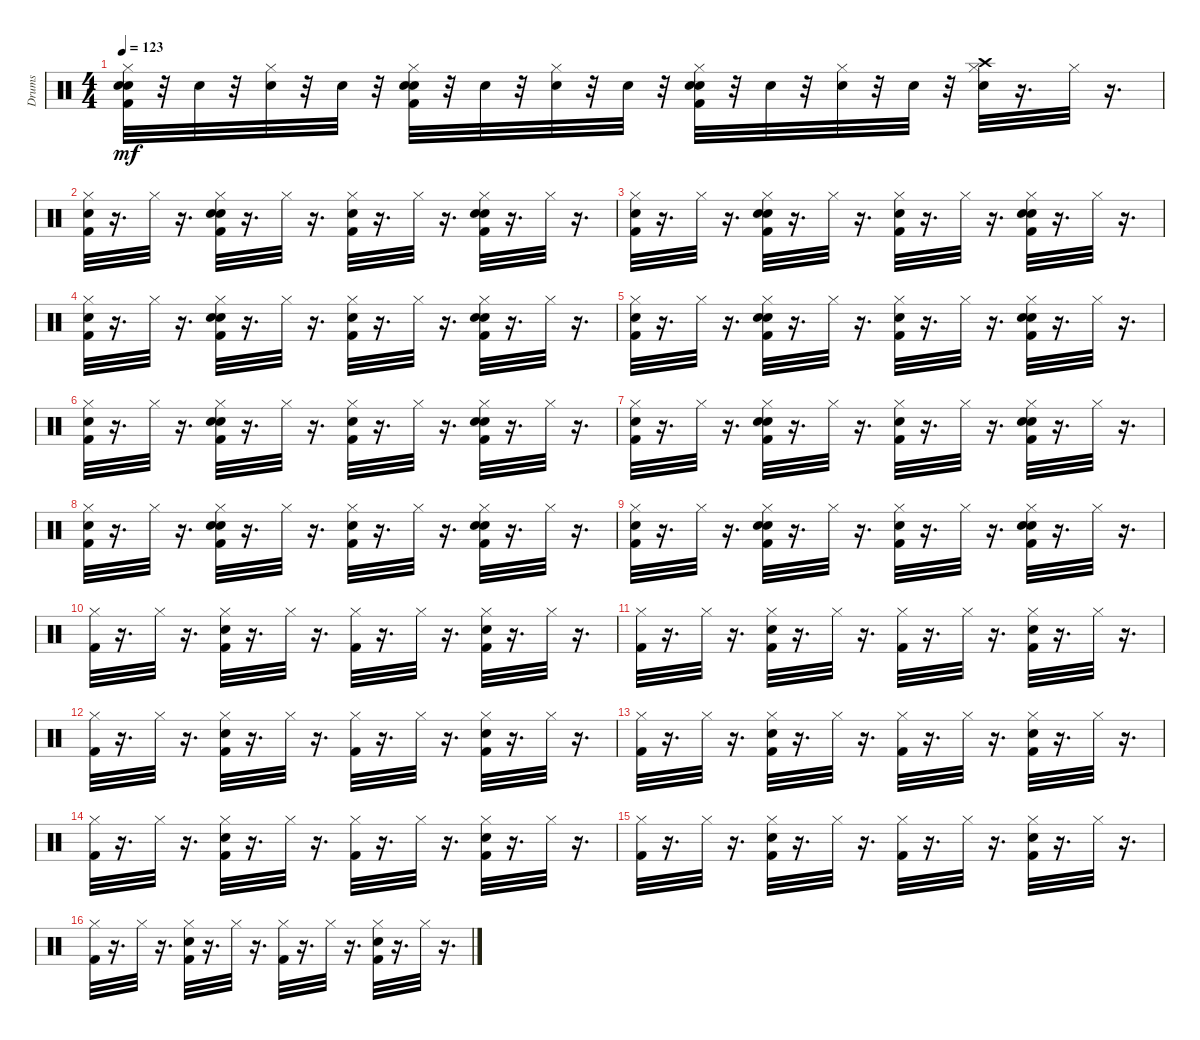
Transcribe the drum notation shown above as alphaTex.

\track ("Drums" "Drums") {instrument percussion}
\staff {score}
\articulation defaults
\ts (4 4)
\tempo 123
\clef neutral
\ks c
("Kick (hit) 2" "Hand Clap (hit)" "Electric Snare (hit)" "Hi-Hat (closed)").32{dy mf} r.32 "Snare (hit) 2".32 r.32 ("Electric Snare (hit)" "Hi-Hat (closed)").32 r.32 "Snare (hit) 2".32 r.32 ("Kick (hit) 2" "Hand Clap (hit)" "Electric Snare (hit)" "Hi-Hat (closed)").32 r.32 "Snare (hit) 2".32 r.32 ("Electric Snare (hit)" "Hi-Hat (closed)").32 r.32 "Snare (hit) 2".32 r.32 ("Kick (hit) 2" "Hand Clap (hit)" "Electric Snare (hit)" "Hi-Hat (closed)").32 r.32 "Snare (hit) 2".32 r.32 ("Electric Snare (hit)" "Hi-Hat (closed)").32 r.32 "Snare (hit) 2".32 r.32 ("Hand Clap (hit)" "Hi-Hat (closed)" "Crash high (hit)").32 r.16{d} "Hi-Hat (closed)".32 r.16{d} |
("Kick (hit) 2" "Hand Clap (hit)" "Hi-Hat (closed)").32 r.16{d} "Hi-Hat (closed)".32 r.16{d} ("Kick (hit) 2" "Snare (hit) 2" "Hand Clap (hit)" "Hi-Hat (closed)").32 r.16{d} "Hi-Hat (closed)".32 r.16{d} ("Kick (hit) 2" "Hand Clap (hit)" "Hi-Hat (closed)").32 r.16{d} "Hi-Hat (closed)".32 r.16{d} ("Kick (hit) 2" "Snare (hit) 2" "Hand Clap (hit)" "Hi-Hat (closed)").32 r.16{d} "Hi-Hat (closed)".32 r.16{d} |
("Kick (hit) 2" "Hand Clap (hit)" "Hi-Hat (closed)").32 r.16{d} "Hi-Hat (closed)".32 r.16{d} ("Kick (hit) 2" "Snare (hit) 2" "Hand Clap (hit)" "Hi-Hat (closed)").32 r.16{d} "Hi-Hat (closed)".32 r.16{d} ("Kick (hit) 2" "Hand Clap (hit)" "Hi-Hat (closed)").32 r.16{d} "Hi-Hat (closed)".32 r.16{d} ("Kick (hit) 2" "Snare (hit) 2" "Hand Clap (hit)" "Hi-Hat (closed)").32 r.16{d} "Hi-Hat (closed)".32 r.16{d} |
("Kick (hit) 2" "Hand Clap (hit)" "Hi-Hat (closed)").32 r.16{d} "Hi-Hat (closed)".32 r.16{d} ("Kick (hit) 2" "Snare (hit) 2" "Hand Clap (hit)" "Hi-Hat (closed)").32 r.16{d} "Hi-Hat (closed)".32 r.16{d} ("Kick (hit) 2" "Hand Clap (hit)" "Hi-Hat (closed)").32 r.16{d} "Hi-Hat (closed)".32 r.16{d} ("Kick (hit) 2" "Snare (hit) 2" "Hand Clap (hit)" "Hi-Hat (closed)").32 r.16{d} "Hi-Hat (closed)".32 r.16{d} |
("Kick (hit) 2" "Hand Clap (hit)" "Hi-Hat (closed)").32 r.16{d} "Hi-Hat (closed)".32 r.16{d} ("Kick (hit) 2" "Snare (hit) 2" "Hand Clap (hit)" "Hi-Hat (closed)").32 r.16{d} "Hi-Hat (closed)".32 r.16{d} ("Kick (hit) 2" "Hand Clap (hit)" "Hi-Hat (closed)").32 r.16{d} "Hi-Hat (closed)".32 r.16{d} ("Kick (hit) 2" "Snare (hit) 2" "Hand Clap (hit)" "Hi-Hat (closed)").32 r.16{d} "Hi-Hat (closed)".32 r.16{d} |
("Kick (hit) 2" "Hand Clap (hit)" "Hi-Hat (closed)").32 r.16{d} "Hi-Hat (closed)".32 r.16{d} ("Kick (hit) 2" "Snare (hit) 2" "Hand Clap (hit)" "Hi-Hat (closed)").32 r.16{d} "Hi-Hat (closed)".32 r.16{d} ("Kick (hit) 2" "Hand Clap (hit)" "Hi-Hat (closed)").32 r.16{d} "Hi-Hat (closed)".32 r.16{d} ("Kick (hit) 2" "Snare (hit) 2" "Hand Clap (hit)" "Hi-Hat (closed)").32 r.16{d} "Hi-Hat (closed)".32 r.16{d} |
("Kick (hit) 2" "Hand Clap (hit)" "Hi-Hat (closed)").32 r.16{d} "Hi-Hat (closed)".32 r.16{d} ("Kick (hit) 2" "Snare (hit) 2" "Hand Clap (hit)" "Hi-Hat (closed)").32 r.16{d} "Hi-Hat (closed)".32 r.16{d} ("Kick (hit) 2" "Hand Clap (hit)" "Hi-Hat (closed)").32 r.16{d} "Hi-Hat (closed)".32 r.16{d} ("Kick (hit) 2" "Snare (hit) 2" "Hand Clap (hit)" "Hi-Hat (closed)").32 r.16{d} "Hi-Hat (closed)".32 r.16{d} |
("Kick (hit) 2" "Hand Clap (hit)" "Hi-Hat (closed)").32 r.16{d} "Hi-Hat (closed)".32 r.16{d} ("Kick (hit) 2" "Snare (hit) 2" "Hand Clap (hit)" "Hi-Hat (closed)").32 r.16{d} "Hi-Hat (closed)".32 r.16{d} ("Kick (hit) 2" "Hand Clap (hit)" "Hi-Hat (closed)").32 r.16{d} "Hi-Hat (closed)".32 r.16{d} ("Kick (hit) 2" "Snare (hit) 2" "Hand Clap (hit)" "Hi-Hat (closed)").32 r.16{d} "Hi-Hat (closed)".32 r.16{d} |
("Kick (hit) 2" "Hand Clap (hit)" "Hi-Hat (closed)").32 r.16{d} "Hi-Hat (closed)".32 r.16{d} ("Kick (hit) 2" "Snare (hit) 2" "Hand Clap (hit)" "Hi-Hat (closed)").32 r.16{d} "Hi-Hat (closed)".32 r.16{d} ("Kick (hit) 2" "Hand Clap (hit)" "Hi-Hat (closed)").32 r.16{d} "Hi-Hat (closed)".32 r.16{d} ("Kick (hit) 2" "Snare (hit) 2" "Hand Clap (hit)" "Hi-Hat (closed)").32 r.16{d} "Hi-Hat (closed)".32 r.16{d} |
("Kick (hit) 2" "Hi-Hat (closed)").32 r.16{d} "Hi-Hat (closed)".32 r.16{d} ("Kick (hit) 2" "Snare (hit) 2" "Hi-Hat (closed)").32 r.16{d} "Hi-Hat (closed)".32 r.16{d} ("Kick (hit) 2" "Hi-Hat (closed)").32 r.16{d} "Hi-Hat (closed)".32 r.16{d} ("Kick (hit) 2" "Snare (hit) 2" "Hi-Hat (closed)").32 r.16{d} "Hi-Hat (closed)".32 r.16{d} |
("Kick (hit) 2" "Hi-Hat (closed)").32 r.16{d} "Hi-Hat (closed)".32 r.16{d} ("Kick (hit) 2" "Snare (hit) 2" "Hi-Hat (closed)").32 r.16{d} "Hi-Hat (closed)".32 r.16{d} ("Kick (hit) 2" "Hi-Hat (closed)").32 r.16{d} "Hi-Hat (closed)".32 r.16{d} ("Kick (hit) 2" "Snare (hit) 2" "Hi-Hat (closed)").32 r.16{d} "Hi-Hat (closed)".32 r.16{d} |
("Kick (hit) 2" "Hi-Hat (closed)").32 r.16{d} "Hi-Hat (closed)".32 r.16{d} ("Kick (hit) 2" "Snare (hit) 2" "Hi-Hat (closed)").32 r.16{d} "Hi-Hat (closed)".32 r.16{d} ("Kick (hit) 2" "Hi-Hat (closed)").32 r.16{d} "Hi-Hat (closed)".32 r.16{d} ("Kick (hit) 2" "Snare (hit) 2" "Hi-Hat (closed)").32 r.16{d} "Hi-Hat (closed)".32 r.16{d} |
("Kick (hit) 2" "Hi-Hat (closed)").32 r.16{d} "Hi-Hat (closed)".32 r.16{d} ("Kick (hit) 2" "Snare (hit) 2" "Hi-Hat (closed)").32 r.16{d} "Hi-Hat (closed)".32 r.16{d} ("Kick (hit) 2" "Hi-Hat (closed)").32 r.16{d} "Hi-Hat (closed)".32 r.16{d} ("Kick (hit) 2" "Snare (hit) 2" "Hi-Hat (closed)").32 r.16{d} "Hi-Hat (closed)".32 r.16{d} |
("Kick (hit) 2" "Hi-Hat (closed)").32 r.16{d} "Hi-Hat (closed)".32 r.16{d} ("Kick (hit) 2" "Snare (hit) 2" "Hi-Hat (closed)").32 r.16{d} "Hi-Hat (closed)".32 r.16{d} ("Kick (hit) 2" "Hi-Hat (closed)").32 r.16{d} "Hi-Hat (closed)".32 r.16{d} ("Kick (hit) 2" "Snare (hit) 2" "Hi-Hat (closed)").32 r.16{d} "Hi-Hat (closed)".32 r.16{d} |
("Kick (hit) 2" "Hi-Hat (closed)").32 r.16{d} "Hi-Hat (closed)".32 r.16{d} ("Kick (hit) 2" "Snare (hit) 2" "Hi-Hat (closed)").32 r.16{d} "Hi-Hat (closed)".32 r.16{d} ("Kick (hit) 2" "Hi-Hat (closed)").32 r.16{d} "Hi-Hat (closed)".32 r.16{d} ("Kick (hit) 2" "Snare (hit) 2" "Hi-Hat (closed)").32 r.16{d} "Hi-Hat (closed)".32 r.16{d} |
("Kick (hit) 2" "Hi-Hat (closed)").32 r.16{d} "Hi-Hat (closed)".32 r.16{d} ("Kick (hit) 2" "Snare (hit) 2" "Hi-Hat (closed)").32 r.16{d} "Hi-Hat (closed)".32 r.16{d} ("Kick (hit) 2" "Hi-Hat (closed)").32 r.16{d} "Hi-Hat (closed)".32 r.16{d} ("Kick (hit) 2" "Snare (hit) 2" "Hi-Hat (closed)").32 r.16{d} "Hi-Hat (closed)".32 r.16{d}
